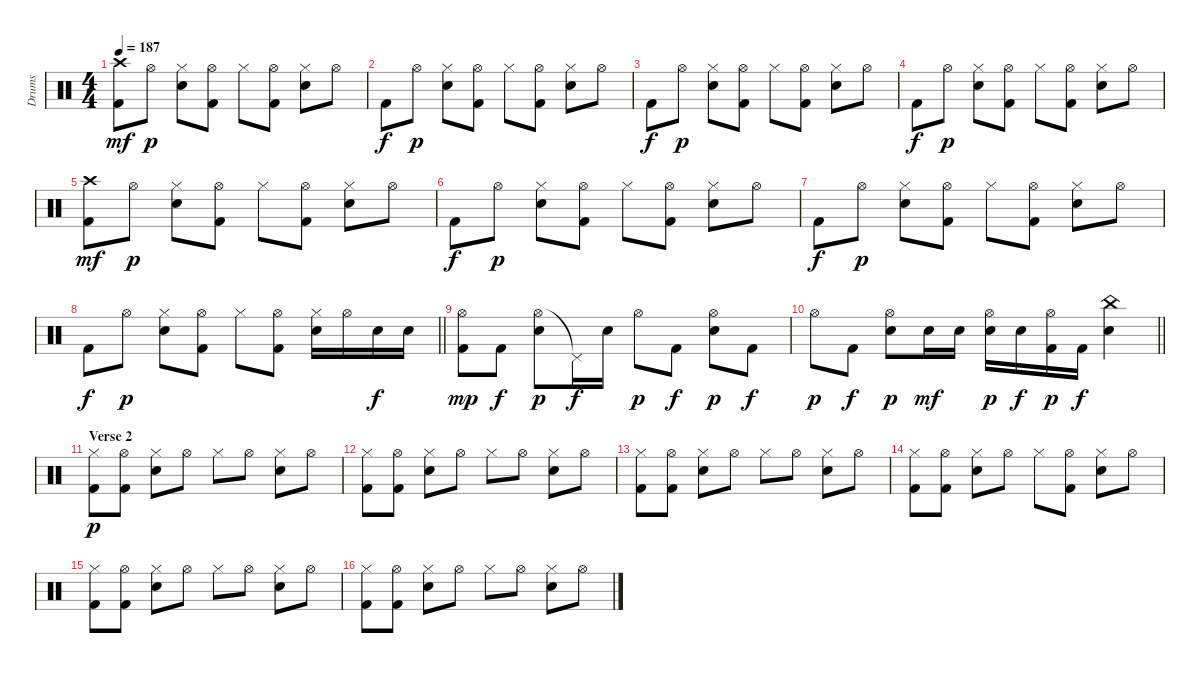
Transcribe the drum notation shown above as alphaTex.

\track ("Drums" "Drums") {instrument percussion}
\staff {score}
\articulation defaults
\ts (4 4)
\tempo 187
\clef neutral
\ks c
("Crash high (hit)" "Kick (hit) 2").8{dy mf} "Hi-Hat (open)".8{dy p} ("Hi-Hat (closed)" "Electric Snare (hit)").8 ("Hi-Hat (open)" "Kick (hit) 2").8 "Hi-Hat (closed)".8 ("Hi-Hat (open)" "Kick (hit) 2").8 ("Hi-Hat (closed)" "Electric Snare (hit)").8 "Hi-Hat (open)".8 |
"Kick (hit) 2".8{dy f} "Hi-Hat (open)".8{dy p} ("Hi-Hat (closed)" "Electric Snare (hit)").8 ("Hi-Hat (open)" "Kick (hit) 2").8 "Hi-Hat (closed)".8 ("Hi-Hat (open)" "Kick (hit) 2").8 ("Hi-Hat (closed)" "Electric Snare (hit)").8 "Hi-Hat (open)".8 |
"Kick (hit) 2".8{dy f} "Hi-Hat (open)".8{dy p} ("Hi-Hat (closed)" "Electric Snare (hit)").8 ("Hi-Hat (open)" "Kick (hit) 2").8 "Hi-Hat (closed)".8 ("Hi-Hat (open)" "Kick (hit) 2").8 ("Hi-Hat (closed)" "Electric Snare (hit)").8 "Hi-Hat (open)".8 |
"Kick (hit) 2".8{dy f} "Hi-Hat (open)".8{dy p} ("Hi-Hat (closed)" "Electric Snare (hit)").8 ("Hi-Hat (open)" "Kick (hit) 2").8 "Hi-Hat (closed)".8 ("Hi-Hat (open)" "Kick (hit) 2").8 ("Hi-Hat (closed)" "Electric Snare (hit)").8 "Hi-Hat (open)".8 |
("Crash high (hit)" "Kick (hit) 2").8{dy mf} "Hi-Hat (open)".8{dy p} ("Hi-Hat (closed)" "Electric Snare (hit)").8 ("Hi-Hat (open)" "Kick (hit) 2").8 "Hi-Hat (closed)".8 ("Hi-Hat (open)" "Kick (hit) 2").8 ("Hi-Hat (closed)" "Electric Snare (hit)").8 "Hi-Hat (open)".8 |
"Kick (hit) 2".8{dy f} "Hi-Hat (open)".8{dy p} ("Hi-Hat (closed)" "Electric Snare (hit)").8 ("Hi-Hat (open)" "Kick (hit) 2").8 "Hi-Hat (closed)".8 ("Hi-Hat (open)" "Kick (hit) 2").8 ("Hi-Hat (closed)" "Electric Snare (hit)").8 "Hi-Hat (open)".8 |
"Kick (hit) 2".8{dy f} "Hi-Hat (open)".8{dy p} ("Hi-Hat (closed)" "Electric Snare (hit)").8 ("Hi-Hat (open)" "Kick (hit) 2").8 "Hi-Hat (closed)".8 ("Hi-Hat (open)" "Kick (hit) 2").8 ("Hi-Hat (closed)" "Electric Snare (hit)").8 "Hi-Hat (open)".8 |
\barLineRight lightlight "Kick (hit) 2".8{dy f} "Hi-Hat (open)".8{dy p}
("Hi-Hat (closed)" "Electric Snare (hit)").8 ("Hi-Hat (open)" "Kick (hit) 2").8 "Hi-Hat (closed)".8 ("Hi-Hat (open)" "Kick (hit) 2").8 ("Hi-Hat (closed)" "Electric Snare (hit)").16 "Hi-Hat (open)".16 "Electric Snare (hit)".16{dy f} "Electric Snare (hit)".16 |
("Hi-Hat (open)" "Kick (hit) 2").8{dy mp} "Kick (hit) 2".8{dy f} ("Hi-Hat (open)" "Electric Snare (hit)").8{dy p} "Pedal Hi-Hat (hit)"{t}.16{dy f} "Electric Snare (hit)".16 "Hi-Hat (open)".8{dy p} "Kick (hit) 2".8{dy f} ("Hi-Hat (open)" "Electric Snare (hit)").8{dy p} "Kick (hit) 2".8{dy f} |
\barLineRight lightlight "Hi-Hat (open)".8{dy p} "Kick (hit) 2".8{dy f}
("Hi-Hat (open)" "Electric Snare (hit)").8{dy p} "Electric Snare (hit)".16{dy mf} "Electric Snare (hit)".16 ("Hi-Hat (open)" "Electric Snare (hit)").16{dy p} "Electric Snare (hit)".16{dy f} ("Hi-Hat (open)" "Kick (hit) 2").16{dy p} "Kick (hit) 2".16{dy f} ("China (hit)" "Electric Snare (hit)").4 |
\section ("" "Verse 2")
("Hi-Hat (closed)" "Kick (hit) 2").8{dy p} ("Hi-Hat (open)" "Kick (hit) 2").8 ("Hi-Hat (closed)" "Electric Snare (hit)").8 "Hi-Hat (open)".8 "Hi-Hat (closed)".8 "Hi-Hat (open)".8 ("Hi-Hat (closed)" "Electric Snare (hit)").8 "Hi-Hat (open)".8 |
("Hi-Hat (closed)" "Kick (hit) 2").8 ("Hi-Hat (open)" "Kick (hit) 2").8 ("Hi-Hat (closed)" "Electric Snare (hit)").8 "Hi-Hat (open)".8 "Hi-Hat (closed)".8 "Hi-Hat (open)".8 ("Hi-Hat (closed)" "Electric Snare (hit)").8 "Hi-Hat (open)".8 |
("Hi-Hat (closed)" "Kick (hit) 2").8 ("Hi-Hat (open)" "Kick (hit) 2").8 ("Hi-Hat (closed)" "Electric Snare (hit)").8 "Hi-Hat (open)".8 "Hi-Hat (closed)".8 "Hi-Hat (open)".8 ("Hi-Hat (closed)" "Electric Snare (hit)").8 "Hi-Hat (open)".8 |
("Hi-Hat (closed)" "Kick (hit) 2").8 ("Hi-Hat (open)" "Kick (hit) 2").8 ("Hi-Hat (closed)" "Electric Snare (hit)").8 "Hi-Hat (open)".8 "Hi-Hat (closed)".8 ("Hi-Hat (open)" "Kick (hit) 2").8 ("Hi-Hat (closed)" "Electric Snare (hit)").8 "Hi-Hat (open)".8 |
("Hi-Hat (closed)" "Kick (hit) 2").8 ("Hi-Hat (open)" "Kick (hit) 2").8 ("Hi-Hat (closed)" "Electric Snare (hit)").8 "Hi-Hat (open)".8 "Hi-Hat (closed)".8 "Hi-Hat (open)".8 ("Hi-Hat (closed)" "Electric Snare (hit)").8 "Hi-Hat (open)".8 |
("Hi-Hat (closed)" "Kick (hit) 2").8 ("Hi-Hat (open)" "Kick (hit) 2").8 ("Hi-Hat (closed)" "Electric Snare (hit)").8 "Hi-Hat (open)".8 "Hi-Hat (closed)".8 "Hi-Hat (open)".8 ("Hi-Hat (closed)" "Electric Snare (hit)").8 "Hi-Hat (open)".8
